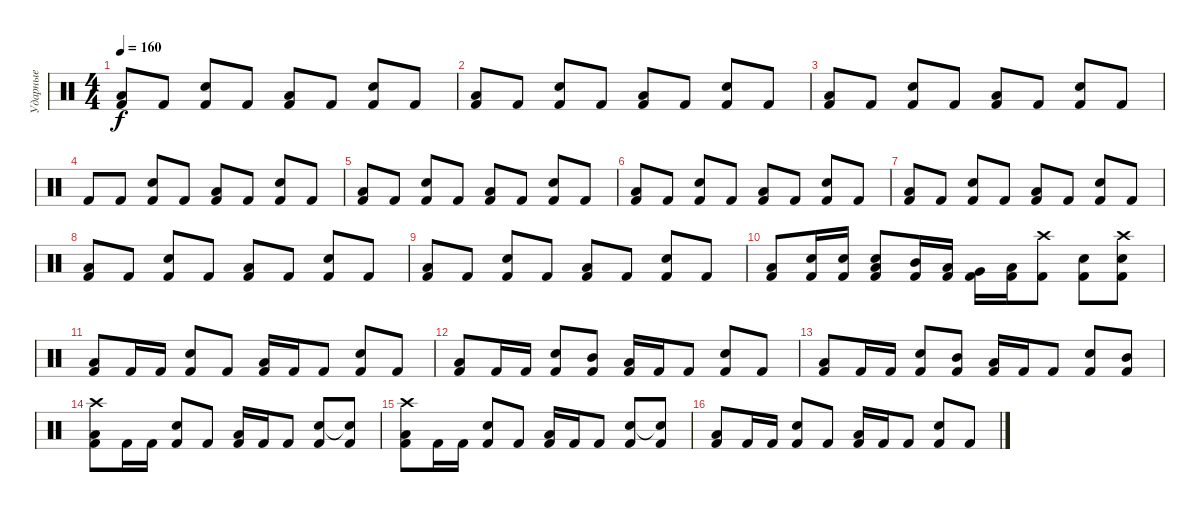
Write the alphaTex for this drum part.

\track ("Ударные" "Ударные") {instrument percussion}
\staff {score}
\articulation defaults
\ts (4 4)
\tempo 160
\clef neutral
\ks c
("Low Tom (hit)" "Kick (hit) 2").8{dy f} "Kick (hit) 2".8 ("Snare (hit) 2" "Kick (hit) 2").8 "Kick (hit) 2".8 ("Low Tom (hit)" "Kick (hit) 2").8 "Kick (hit) 2".8 ("Snare (hit) 2" "Kick (hit) 2").8 "Kick (hit) 2".8 |
("Low Tom (hit)" "Kick (hit) 2").8 "Kick (hit) 2".8 ("Snare (hit) 2" "Kick (hit) 2").8 "Kick (hit) 2".8 ("Low Tom (hit)" "Kick (hit) 2").8 "Kick (hit) 2".8 ("Snare (hit) 2" "Kick (hit) 2").8 "Kick (hit) 2".8 |
("Low Tom (hit)" "Kick (hit) 2").8 "Kick (hit) 2".8 ("Snare (hit) 2" "Kick (hit) 2").8 "Kick (hit) 2".8 ("Low Tom (hit)" "Kick (hit) 2").8 "Kick (hit) 2".8 ("Snare (hit) 2" "Kick (hit) 2").8 "Kick (hit) 2".8 |
"Kick (hit) 2".8 "Kick (hit) 2".8 ("Snare (hit) 2" "Kick (hit) 2").8 "Kick (hit) 2".8 ("Low Tom (hit)" "Kick (hit) 2").8 "Kick (hit) 2".8 ("Snare (hit) 2" "Kick (hit) 2").8 "Kick (hit) 2".8 |
("Low Tom (hit)" "Kick (hit) 2").8 "Kick (hit) 2".8 ("Snare (hit) 2" "Kick (hit) 2").8 "Kick (hit) 2".8 ("Low Tom (hit)" "Kick (hit) 2").8 "Kick (hit) 2".8 ("Snare (hit) 2" "Kick (hit) 2").8 "Kick (hit) 2".8 |
("Low Tom (hit)" "Kick (hit) 2").8 "Kick (hit) 2".8 ("Snare (hit) 2" "Kick (hit) 2").8 "Kick (hit) 2".8 ("Low Tom (hit)" "Kick (hit) 2").8 "Kick (hit) 2".8 ("Snare (hit) 2" "Kick (hit) 2").8 "Kick (hit) 2".8 |
("Low Tom (hit)" "Kick (hit) 2").8 "Kick (hit) 2".8 ("Snare (hit) 2" "Kick (hit) 2").8 "Kick (hit) 2".8 ("Low Tom (hit)" "Kick (hit) 2").8 "Kick (hit) 2".8 ("Snare (hit) 2" "Kick (hit) 2").8 "Kick (hit) 2".8 |
("Low Tom (hit)" "Kick (hit) 2").8 "Kick (hit) 2".8 ("Snare (hit) 2" "Kick (hit) 2").8 "Kick (hit) 2".8 ("Low Tom (hit)" "Kick (hit) 2").8 "Kick (hit) 2".8 ("Snare (hit) 2" "Kick (hit) 2").8 "Kick (hit) 2".8 |
("Low Tom (hit)" "Kick (hit) 2").8 "Kick (hit) 2".8 ("Snare (hit) 2" "Kick (hit) 2").8 "Kick (hit) 2".8 ("Low Tom (hit)" "Kick (hit) 2").8 "Kick (hit) 2".8 ("Snare (hit) 2" "Kick (hit) 2").8 "Kick (hit) 2".8 |
("Low Tom (hit)" "Kick (hit) 2").8 ("Snare (hit) 2" "Kick (hit) 2").16 ("Snare (hit) 2" "Kick (hit) 2").16 ("Low Tom (hit)" "Snare (hit) 2" "Kick (hit) 2").8 ("Mid Tom (hit)" "Kick (hit) 2").16 ("Low Tom (hit)" "Kick (hit) 2").16 ("Very Low Tom (hit)" "Kick (hit) 2").16 ("Low Floor Tom (hit)" "Kick (hit) 2").16 ("Crash high (hit)" "Kick (hit) 2").8 ("Snare (hit) 2" "Kick (hit) 2").8 ("Crash high (hit)" "Snare (hit) 2" "Kick (hit) 2").8 |
("Low Tom (hit)" "Kick (hit) 2").8 "Kick (hit) 2".16 "Kick (hit) 2".16 ("Snare (hit) 2" "Kick (hit) 2").8 "Kick (hit) 2".8 ("Low Tom (hit)" "Kick (hit) 2").16 "Kick (hit) 2".16 "Kick (hit) 2".8 ("Snare (hit) 2" "Kick (hit) 2").8 "Kick (hit) 2".8 |
("Low Tom (hit)" "Kick (hit) 2").8 "Kick (hit) 2".16 "Kick (hit) 2".16 ("Snare (hit) 2" "Kick (hit) 2").8 ("Mid Tom (hit)" "Kick (hit) 2").8 ("Low Tom (hit)" "Kick (hit) 2").16 "Kick (hit) 2".16 "Kick (hit) 2".8 ("Snare (hit) 2" "Kick (hit) 2").8 "Kick (hit) 2".8 |
("Low Tom (hit)" "Kick (hit) 2").8 "Kick (hit) 2".16 "Kick (hit) 2".16 ("Snare (hit) 2" "Kick (hit) 2").8 ("Mid Tom (hit)" "Kick (hit) 2").8 ("Low Tom (hit)" "Kick (hit) 2").16 "Kick (hit) 2".16 "Kick (hit) 2".8 ("Snare (hit) 2" "Kick (hit) 2").8 ("Mid Tom (hit)" "Kick (hit) 2").8 |
("Crash high (hit)" "Low Tom (hit)" "Kick (hit) 2").8 "Kick (hit) 2".16 "Kick (hit) 2".16 ("Snare (hit) 2" "Kick (hit) 2").8 "Kick (hit) 2".8 ("Low Tom (hit)" "Kick (hit) 2").16 "Kick (hit) 2".16 "Kick (hit) 2".8 ("Snare (hit) 2" "Kick (hit) 2").8 ("Snare (hit)"{t} "Kick (hit) 2").8 |
("Crash high (hit)" "Low Tom (hit)" "Kick (hit) 2").8 "Kick (hit) 2".16 "Kick (hit) 2".16 ("Snare (hit) 2" "Kick (hit) 2").8 "Kick (hit) 2".8 ("Low Tom (hit)" "Kick (hit) 2").16 "Kick (hit) 2".16 "Kick (hit) 2".8 ("Snare (hit) 2" "Kick (hit) 2").8 ("Snare (hit)"{t} "Kick (hit) 2").8 |
("Low Tom (hit)" "Kick (hit) 2").8 "Kick (hit) 2".16 "Kick (hit) 2".16 ("Snare (hit) 2" "Kick (hit) 2").8 "Kick (hit) 2".8 ("Low Tom (hit)" "Kick (hit) 2").16 "Kick (hit) 2".16 "Kick (hit) 2".8 ("Snare (hit) 2" "Kick (hit) 2").8 "Kick (hit) 2".8
